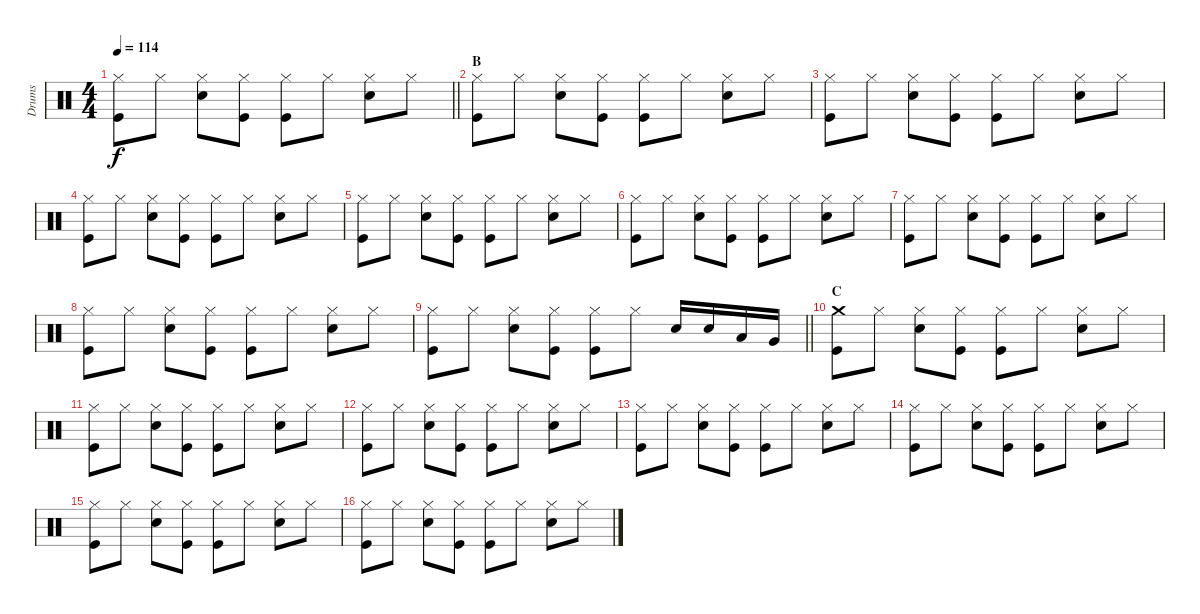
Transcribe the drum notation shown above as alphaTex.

\track ("Drums" "Drums") {instrument percussion}
\staff {score}
\articulation defaults
\ts (4 4)
\tempo 114
\clef neutral
\barLineRight lightlight
\ks c
("Hi-Hat (closed)" "Kick (hit)").8{dy f} "Hi-Hat (closed)".8 ("Hi-Hat (closed)" "Electric Snare (hit)").8 ("Hi-Hat (closed)" "Kick (hit)").8 ("Hi-Hat (closed)" "Kick (hit)").8 "Hi-Hat (closed)".8 ("Hi-Hat (closed)" "Electric Snare (hit)").8 "Hi-Hat (closed)".8 |
\section ("" "B")
("Hi-Hat (closed)" "Kick (hit)").8 "Hi-Hat (closed)".8 ("Hi-Hat (closed)" "Electric Snare (hit)").8 ("Hi-Hat (closed)" "Kick (hit)").8 ("Hi-Hat (closed)" "Kick (hit)").8 "Hi-Hat (closed)".8 ("Hi-Hat (closed)" "Electric Snare (hit)").8 "Hi-Hat (closed)".8 |
("Hi-Hat (closed)" "Kick (hit)").8 "Hi-Hat (closed)".8 ("Hi-Hat (closed)" "Electric Snare (hit)").8 ("Hi-Hat (closed)" "Kick (hit)").8 ("Hi-Hat (closed)" "Kick (hit)").8 "Hi-Hat (closed)".8 ("Hi-Hat (closed)" "Electric Snare (hit)").8 "Hi-Hat (closed)".8 |
("Hi-Hat (closed)" "Kick (hit)").8 "Hi-Hat (closed)".8 ("Hi-Hat (closed)" "Electric Snare (hit)").8 ("Hi-Hat (closed)" "Kick (hit)").8 ("Hi-Hat (closed)" "Kick (hit)").8 "Hi-Hat (closed)".8 ("Hi-Hat (closed)" "Electric Snare (hit)").8 "Hi-Hat (closed)".8 |
("Hi-Hat (closed)" "Kick (hit)").8 "Hi-Hat (closed)".8 ("Hi-Hat (closed)" "Electric Snare (hit)").8 ("Hi-Hat (closed)" "Kick (hit)").8 ("Hi-Hat (closed)" "Kick (hit)").8 "Hi-Hat (closed)".8 ("Hi-Hat (closed)" "Electric Snare (hit)").8 "Hi-Hat (closed)".8 |
("Hi-Hat (closed)" "Kick (hit)").8 "Hi-Hat (closed)".8 ("Hi-Hat (closed)" "Electric Snare (hit)").8 ("Hi-Hat (closed)" "Kick (hit)").8 ("Hi-Hat (closed)" "Kick (hit)").8 "Hi-Hat (closed)".8 ("Hi-Hat (closed)" "Electric Snare (hit)").8 "Hi-Hat (closed)".8 |
("Hi-Hat (closed)" "Kick (hit)").8 "Hi-Hat (closed)".8 ("Hi-Hat (closed)" "Electric Snare (hit)").8 ("Hi-Hat (closed)" "Kick (hit)").8 ("Hi-Hat (closed)" "Kick (hit)").8 "Hi-Hat (closed)".8 ("Hi-Hat (closed)" "Electric Snare (hit)").8 "Hi-Hat (closed)".8 |
("Hi-Hat (closed)" "Kick (hit)").8 "Hi-Hat (closed)".8 ("Hi-Hat (closed)" "Electric Snare (hit)").8 ("Hi-Hat (closed)" "Kick (hit)").8 ("Hi-Hat (closed)" "Kick (hit)").8 "Hi-Hat (closed)".8 ("Hi-Hat (closed)" "Electric Snare (hit)").8 "Hi-Hat (closed)".8 |
\barLineRight lightlight
("Hi-Hat (closed)" "Kick (hit)").8 "Hi-Hat (closed)".8 ("Hi-Hat (closed)" "Electric Snare (hit)").8 ("Hi-Hat (closed)" "Kick (hit)").8 ("Hi-Hat (closed)" "Kick (hit)").8 "Hi-Hat (closed)".8 "Electric Snare (hit)".16 "Electric Snare (hit)".16 "Low Tom (hit)".16 "Very Low Tom (hit)".16 |
\section ("" "C")
("Crash medium (hit)" "Kick (hit)").8 "Hi-Hat (closed)".8 ("Hi-Hat (closed)" "Electric Snare (hit)").8 ("Hi-Hat (closed)" "Kick (hit)").8 ("Hi-Hat (closed)" "Kick (hit)").8 "Hi-Hat (closed)".8 ("Hi-Hat (closed)" "Electric Snare (hit)").8 "Hi-Hat (closed)".8 |
("Hi-Hat (closed)" "Kick (hit)").8 "Hi-Hat (closed)".8 ("Hi-Hat (closed)" "Electric Snare (hit)").8 ("Hi-Hat (closed)" "Kick (hit)").8 ("Hi-Hat (closed)" "Kick (hit)").8 "Hi-Hat (closed)".8 ("Hi-Hat (closed)" "Electric Snare (hit)").8 "Hi-Hat (closed)".8 |
("Hi-Hat (closed)" "Kick (hit)").8 "Hi-Hat (closed)".8 ("Hi-Hat (closed)" "Electric Snare (hit)").8 ("Hi-Hat (closed)" "Kick (hit)").8 ("Hi-Hat (closed)" "Kick (hit)").8 "Hi-Hat (closed)".8 ("Hi-Hat (closed)" "Electric Snare (hit)").8 "Hi-Hat (closed)".8 |
("Hi-Hat (closed)" "Kick (hit)").8 "Hi-Hat (closed)".8 ("Hi-Hat (closed)" "Electric Snare (hit)").8 ("Hi-Hat (closed)" "Kick (hit)").8 ("Hi-Hat (closed)" "Kick (hit)").8 "Hi-Hat (closed)".8 ("Hi-Hat (closed)" "Electric Snare (hit)").8 "Hi-Hat (closed)".8 |
("Hi-Hat (closed)" "Kick (hit)").8 "Hi-Hat (closed)".8 ("Hi-Hat (closed)" "Electric Snare (hit)").8 ("Hi-Hat (closed)" "Kick (hit)").8 ("Hi-Hat (closed)" "Kick (hit)").8 "Hi-Hat (closed)".8 ("Hi-Hat (closed)" "Electric Snare (hit)").8 "Hi-Hat (closed)".8 |
("Hi-Hat (closed)" "Kick (hit)").8 "Hi-Hat (closed)".8 ("Hi-Hat (closed)" "Electric Snare (hit)").8 ("Hi-Hat (closed)" "Kick (hit)").8 ("Hi-Hat (closed)" "Kick (hit)").8 "Hi-Hat (closed)".8 ("Hi-Hat (closed)" "Electric Snare (hit)").8 "Hi-Hat (closed)".8 |
("Hi-Hat (closed)" "Kick (hit)").8 "Hi-Hat (closed)".8 ("Hi-Hat (closed)" "Electric Snare (hit)").8 ("Hi-Hat (closed)" "Kick (hit)").8 ("Hi-Hat (closed)" "Kick (hit)").8 "Hi-Hat (closed)".8 ("Hi-Hat (closed)" "Electric Snare (hit)").8 "Hi-Hat (closed)".8
